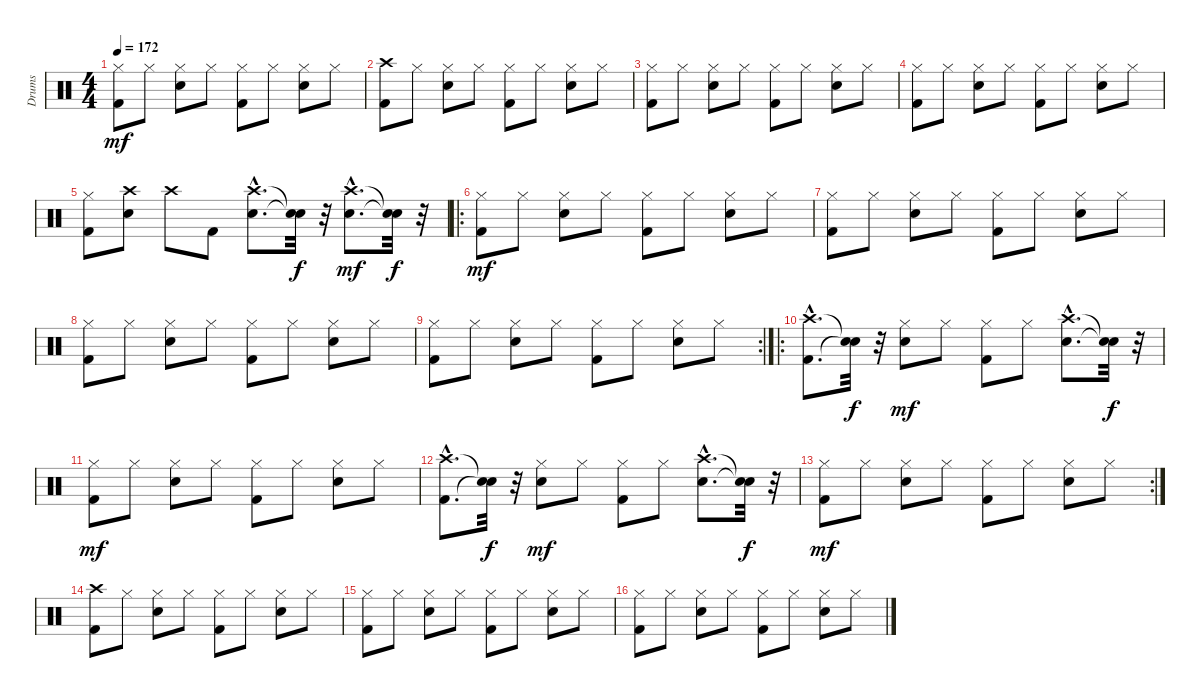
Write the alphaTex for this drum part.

\track ("Drums" "Drums") {instrument percussion}
\staff {score}
\articulation defaults
\ts (4 4)
\tempo 172
\clef neutral
\ks c
("Hi-Hat (closed)" "Kick (hit) 2").8{dy mf} "Hi-Hat (closed)".8 ("Hi-Hat (closed)" "Snare (hit) 2").8 "Hi-Hat (closed)".8 ("Hi-Hat (closed)" "Kick (hit) 2").8 "Hi-Hat (closed)".8 ("Hi-Hat (closed)" "Snare (hit) 2").8 "Hi-Hat (closed)".8 |
("Crash high (hit)" "Kick (hit) 2").8 "Hi-Hat (closed)".8 ("Hi-Hat (closed)" "Snare (hit) 2").8 "Hi-Hat (closed)".8 ("Hi-Hat (closed)" "Kick (hit) 2").8 "Hi-Hat (closed)".8 ("Hi-Hat (closed)" "Snare (hit) 2").8 "Hi-Hat (closed)".8 |
("Hi-Hat (closed)" "Kick (hit) 2").8 "Hi-Hat (closed)".8 ("Hi-Hat (closed)" "Snare (hit) 2").8 "Hi-Hat (closed)".8 ("Hi-Hat (closed)" "Kick (hit) 2").8 "Hi-Hat (closed)".8 ("Hi-Hat (closed)" "Snare (hit) 2").8 "Hi-Hat (closed)".8 |
("Hi-Hat (closed)" "Kick (hit) 2").8 "Hi-Hat (closed)".8 ("Hi-Hat (closed)" "Snare (hit) 2").8 "Hi-Hat (closed)".8 ("Hi-Hat (closed)" "Kick (hit) 2").8 "Hi-Hat (closed)".8 ("Hi-Hat (closed)" "Snare (hit) 2").8 "Hi-Hat (closed)".8 |
("Hi-Hat (closed)" "Kick (hit) 2").8 ("Crash high (hit)" "Snare (hit) 2").8 "Crash high (hit)".8 "Kick (hit) 2".8 ("Crash high (hit)"{hac} "Snare (hit) 2"{hac}).8{d} ("Snare (hit)"{t} "Snare (hit)"{t}).32{dy f} r.32 ("Crash high (hit)"{hac} "Snare (hit) 2"{hac}).8{d dy mf} ("Snare (hit)"{t} "Snare (hit)"{t}).32{dy f} r.32 |
\ro
("Hi-Hat (closed)" "Kick (hit) 2").8{dy mf} "Hi-Hat (closed)".8 ("Hi-Hat (closed)" "Snare (hit) 2").8 "Hi-Hat (closed)".8 ("Hi-Hat (closed)" "Kick (hit) 2").8 "Hi-Hat (closed)".8 ("Hi-Hat (closed)" "Snare (hit) 2").8 "Hi-Hat (closed)".8 |
("Kick (hit) 2" "Hi-Hat (closed)").8 "Hi-Hat (closed)".8 ("Snare (hit) 2" "Hi-Hat (closed)").8 "Hi-Hat (closed)".8 ("Kick (hit) 2" "Hi-Hat (closed)").8 "Hi-Hat (closed)".8 ("Snare (hit) 2" "Hi-Hat (closed)").8 "Hi-Hat (closed)".8 |
("Kick (hit) 2" "Hi-Hat (closed)").8 "Hi-Hat (closed)".8 ("Snare (hit) 2" "Hi-Hat (closed)").8 "Hi-Hat (closed)".8 ("Kick (hit) 2" "Hi-Hat (closed)").8 "Hi-Hat (closed)".8 ("Snare (hit) 2" "Hi-Hat (closed)").8 "Hi-Hat (closed)".8 |
\rc 2
("Kick (hit) 2" "Hi-Hat (closed)").8 "Hi-Hat (closed)".8 ("Snare (hit) 2" "Hi-Hat (closed)").8 "Hi-Hat (closed)".8 ("Kick (hit) 2" "Hi-Hat (closed)").8 "Hi-Hat (closed)".8 ("Snare (hit) 2" "Hi-Hat (closed)").8 "Hi-Hat (closed)".8 |
\ro
("Crash high (hit)"{hac} "Kick (hit) 2"{hac}).8{d} ("Snare (hit)"{t} "Snare (hit)"{t}).32{dy f} r.32 ("Snare (hit) 2" "Hi-Hat (closed)").8{dy mf} "Hi-Hat (closed)".8 ("Kick (hit) 2" "Hi-Hat (closed)").8 "Hi-Hat (closed)".8 ("Crash high (hit)"{hac} "Snare (hit) 2"{hac}).8{d} ("Snare (hit)"{t} "Snare (hit)"{t}).32{dy f} r.32 |
("Kick (hit) 2" "Hi-Hat (closed)").8{dy mf} "Hi-Hat (closed)".8 ("Snare (hit) 2" "Hi-Hat (closed)").8 "Hi-Hat (closed)".8 ("Kick (hit) 2" "Hi-Hat (closed)").8 "Hi-Hat (closed)".8 ("Snare (hit) 2" "Hi-Hat (closed)").8 "Hi-Hat (closed)".8 |
("Kick (hit) 2"{hac} "Crash high (hit)"{hac}).8{d} ("Snare (hit)"{t} "Snare (hit)"{t}).32{dy f} r.32 ("Snare (hit) 2" "Hi-Hat (closed)").8{dy mf} "Hi-Hat (closed)".8 ("Hi-Hat (closed)" "Kick (hit) 2").8 "Hi-Hat (closed)".8 ("Snare (hit) 2"{hac} "Crash high (hit)"{hac}).8{d} ("Snare (hit)"{t} "Snare (hit)"{t}).32{dy f} r.32 |
\rc 2
("Kick (hit) 2" "Hi-Hat (closed)").8{dy mf} "Hi-Hat (closed)".8 ("Snare (hit) 2" "Hi-Hat (closed)").8 "Hi-Hat (closed)".8 ("Kick (hit) 2" "Hi-Hat (closed)").8 "Hi-Hat (closed)".8 ("Snare (hit) 2" "Hi-Hat (closed)").8 "Hi-Hat (closed)".8 |
("Crash high (hit)" "Kick (hit) 2").8 "Hi-Hat (closed)".8 ("Hi-Hat (closed)" "Snare (hit) 2").8 "Hi-Hat (closed)".8 ("Hi-Hat (closed)" "Kick (hit) 2").8 "Hi-Hat (closed)".8 ("Hi-Hat (closed)" "Snare (hit) 2").8 "Hi-Hat (closed)".8 |
("Hi-Hat (closed)" "Kick (hit) 2").8 "Hi-Hat (closed)".8 ("Hi-Hat (closed)" "Snare (hit) 2").8 "Hi-Hat (closed)".8 ("Hi-Hat (closed)" "Kick (hit) 2").8 "Hi-Hat (closed)".8 ("Hi-Hat (closed)" "Snare (hit) 2").8 "Hi-Hat (closed)".8 |
("Hi-Hat (closed)" "Kick (hit) 2").8 "Hi-Hat (closed)".8 ("Hi-Hat (closed)" "Snare (hit) 2").8 "Hi-Hat (closed)".8 ("Hi-Hat (closed)" "Kick (hit) 2").8 "Hi-Hat (closed)".8 ("Hi-Hat (closed)" "Snare (hit) 2").8 "Hi-Hat (closed)".8
